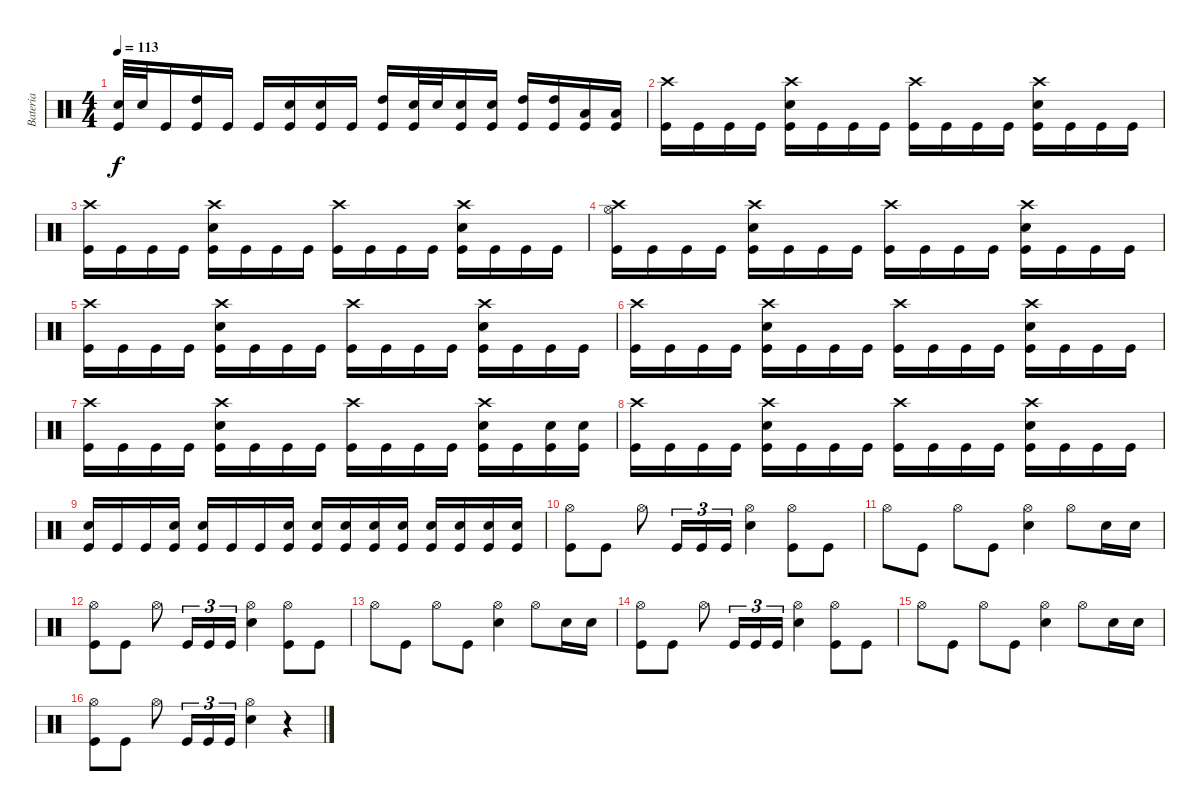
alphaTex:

\track ("Bateria" "Bateria") {instrument percussion}
\staff {score}
\articulation defaults
\ts (4 4)
\tempo 113
\clef neutral
\ks c
("Kick (hit)" "Snare (hit) 2").32{dy f} "Snare (hit) 2".32 "Kick (hit)".16 ("Kick (hit)" "High Tom (hit)").16 "Kick (hit)".16 "Kick (hit)".16 ("Kick (hit)" "Snare (hit) 2").16 ("Kick (hit)" "Snare (hit) 2").16 "Kick (hit)".16 ("Kick (hit)" "High Tom (hit)").16 ("Kick (hit)" "Snare (hit) 2").32 "Snare (hit) 2".32 ("Kick (hit)" "Snare (hit) 2").16 ("Kick (hit)" "Snare (hit) 2").16 ("Kick (hit)" "High Tom (hit)").16 ("Kick (hit)" "High Tom (hit)").16 ("Kick (hit)" "Low Tom (hit)").16 ("Kick (hit)" "Low Tom (hit)").16 |
("Kick (hit)" "Crash high (hit)").16 "Kick (hit)".16 "Kick (hit)".16 "Kick (hit)".16 ("Kick (hit)" "Crash high (hit)" "Snare (hit) 2").16 "Kick (hit)".16 "Kick (hit)".16 "Kick (hit)".16 ("Kick (hit)" "Crash high (hit)").16 "Kick (hit)".16 "Kick (hit)".16 "Kick (hit)".16 ("Kick (hit)" "Crash high (hit)" "Snare (hit) 2").16 "Kick (hit)".16 "Kick (hit)".16 "Kick (hit)".16 |
("Kick (hit)" "Crash high (hit)").16 "Kick (hit)".16 "Kick (hit)".16 "Kick (hit)".16 ("Kick (hit)" "Crash high (hit)" "Snare (hit) 2").16 "Kick (hit)".16 "Kick (hit)".16 "Kick (hit)".16 ("Kick (hit)" "Crash high (hit)").16 "Kick (hit)".16 "Kick (hit)".16 "Kick (hit)".16 ("Kick (hit)" "Crash high (hit)" "Snare (hit) 2").16 "Kick (hit)".16 "Kick (hit)".16 "Kick (hit)".16 |
("Kick (hit)" "Crash high (hit)" "Hi-Hat (open)").16 "Kick (hit)".16 "Kick (hit)".16 "Kick (hit)".16 ("Kick (hit)" "Crash high (hit)" "Snare (hit) 2").16 "Kick (hit)".16 "Kick (hit)".16 "Kick (hit)".16 ("Kick (hit)" "Crash high (hit)").16 "Kick (hit)".16 "Kick (hit)".16 "Kick (hit)".16 ("Kick (hit)" "Crash high (hit)" "Snare (hit) 2").16 "Kick (hit)".16 "Kick (hit)".16 "Kick (hit)".16 |
("Kick (hit)" "Crash high (hit)").16 "Kick (hit)".16 "Kick (hit)".16 "Kick (hit)".16 ("Kick (hit)" "Crash high (hit)" "Snare (hit) 2").16 "Kick (hit)".16 "Kick (hit)".16 "Kick (hit)".16 ("Kick (hit)" "Crash high (hit)").16 "Kick (hit)".16 "Kick (hit)".16 "Kick (hit)".16 ("Kick (hit)" "Crash high (hit)" "Snare (hit) 2").16 "Kick (hit)".16 "Kick (hit)".16 "Kick (hit)".16 |
("Kick (hit)" "Crash high (hit)").16 "Kick (hit)".16 "Kick (hit)".16 "Kick (hit)".16 ("Kick (hit)" "Crash high (hit)" "Snare (hit) 2").16 "Kick (hit)".16 "Kick (hit)".16 "Kick (hit)".16 ("Kick (hit)" "Crash high (hit)").16 "Kick (hit)".16 "Kick (hit)".16 "Kick (hit)".16 ("Kick (hit)" "Crash high (hit)" "Snare (hit) 2").16 "Kick (hit)".16 "Kick (hit)".16 "Kick (hit)".16 |
("Kick (hit)" "Crash high (hit)").16 "Kick (hit)".16 "Kick (hit)".16 "Kick (hit)".16 ("Kick (hit)" "Crash high (hit)" "Snare (hit) 2").16 "Kick (hit)".16 "Kick (hit)".16 "Kick (hit)".16 ("Kick (hit)" "Crash high (hit)").16 "Kick (hit)".16 "Kick (hit)".16 "Kick (hit)".16 ("Kick (hit)" "Crash high (hit)" "Snare (hit) 2").16 "Kick (hit)".16 ("Kick (hit)" "Snare (hit) 2").16 ("Kick (hit)" "Snare (hit) 2").16 |
("Kick (hit)" "Crash high (hit)").16 "Kick (hit)".16 "Kick (hit)".16 "Kick (hit)".16 ("Kick (hit)" "Crash high (hit)" "Snare (hit) 2").16 "Kick (hit)".16 "Kick (hit)".16 "Kick (hit)".16 ("Kick (hit)" "Crash high (hit)").16 "Kick (hit)".16 "Kick (hit)".16 "Kick (hit)".16 ("Kick (hit)" "Crash high (hit)" "Snare (hit) 2").16 "Kick (hit)".16 "Kick (hit)".16 "Kick (hit)".16 |
("Kick (hit)" "Snare (hit) 2").16 "Kick (hit)".16 "Kick (hit)".16 ("Kick (hit)" "Snare (hit) 2").16 ("Kick (hit)" "Snare (hit) 2").16 "Kick (hit)".16 "Kick (hit)".16 ("Kick (hit)" "Snare (hit) 2").16 ("Kick (hit)" "Snare (hit) 2").16 ("Kick (hit)" "Snare (hit) 2").16 ("Kick (hit)" "Snare (hit) 2").16 ("Kick (hit)" "Snare (hit) 2").16 ("Kick (hit)" "Snare (hit) 2").16 ("Kick (hit)" "Snare (hit) 2").16 ("Kick (hit)" "Snare (hit) 2").16 ("Kick (hit)" "Snare (hit) 2").16 |
("Kick (hit)" "Hi-Hat (open)").8 "Kick (hit)".8 "Hi-Hat (open)".8 "Kick (hit)".16{tu (3 2)} "Kick (hit)".16{tu (3 2)} "Kick (hit)".16{tu (3 2)} ("Hi-Hat (open)" "Snare (hit) 2").4 ("Kick (hit)" "Hi-Hat (open)").8 "Kick (hit)".8 |
"Hi-Hat (open)".8 "Kick (hit)".8 "Hi-Hat (open)".8 "Kick (hit)".8 ("Hi-Hat (open)" "Snare (hit) 2").4 "Hi-Hat (open)".8 "Snare (hit) 2".16 "Snare (hit) 2".16 |
("Kick (hit)" "Hi-Hat (open)").8 "Kick (hit)".8 "Hi-Hat (open)".8 "Kick (hit)".16{tu (3 2)} "Kick (hit)".16{tu (3 2)} "Kick (hit)".16{tu (3 2)} ("Hi-Hat (open)" "Snare (hit) 2").4 ("Kick (hit)" "Hi-Hat (open)").8 "Kick (hit)".8 |
"Hi-Hat (open)".8 "Kick (hit)".8 "Hi-Hat (open)".8 "Kick (hit)".8 ("Hi-Hat (open)" "Snare (hit) 2").4 "Hi-Hat (open)".8 "Snare (hit) 2".16 "Snare (hit) 2".16 |
("Kick (hit)" "Hi-Hat (open)").8 "Kick (hit)".8 "Hi-Hat (open)".8 "Kick (hit)".16{tu (3 2)} "Kick (hit)".16{tu (3 2)} "Kick (hit)".16{tu (3 2)} ("Hi-Hat (open)" "Snare (hit) 2").4 ("Kick (hit)" "Hi-Hat (open)").8 "Kick (hit)".8 |
"Hi-Hat (open)".8 "Kick (hit)".8 "Hi-Hat (open)".8 "Kick (hit)".8 ("Hi-Hat (open)" "Snare (hit) 2").4 "Hi-Hat (open)".8 "Snare (hit) 2".16 "Snare (hit) 2".16 |
("Kick (hit)" "Hi-Hat (open)").8 "Kick (hit)".8 "Hi-Hat (open)".8 "Kick (hit)".16{tu (3 2)} "Kick (hit)".16{tu (3 2)} "Kick (hit)".16{tu (3 2)} ("Hi-Hat (open)" "Snare (hit) 2").4 r.4
